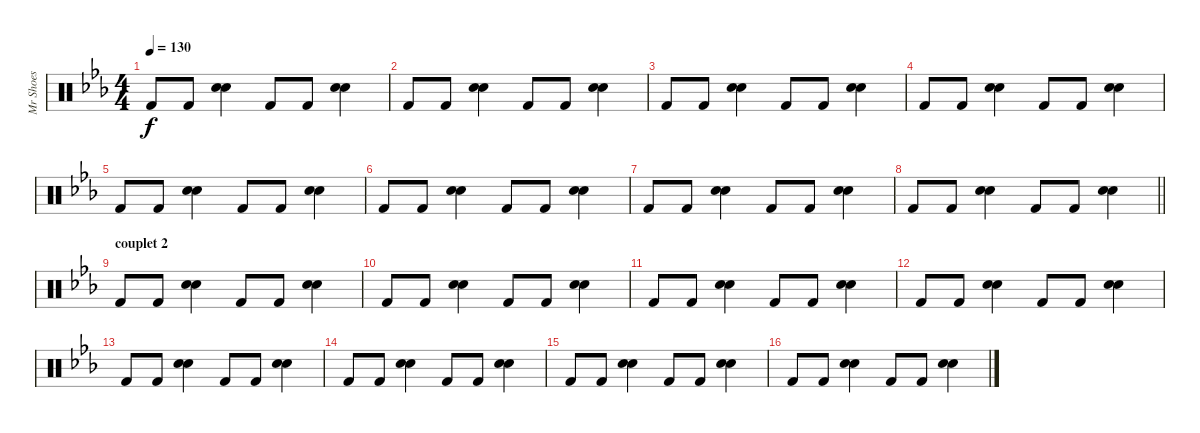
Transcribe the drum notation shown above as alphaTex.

\track ("Mr Shoes " "Mr Shoes ") {instrument percussion}
\staff {score}
\articulation defaults
\ts (4 4)
\tempo 130
\clef neutral
\ks eb "Kick (hit) 2".8{dy f} "Kick (hit) 2".8
("Electric Snare (hit)" "Snare (hit) 2").4 "Kick (hit) 2".8 "Kick (hit) 2".8 ("Electric Snare (hit)" "Snare (hit) 2").4 |
"Kick (hit) 2".8 "Kick (hit) 2".8 ("Electric Snare (hit)" "Snare (hit) 2").4 "Kick (hit) 2".8 "Kick (hit) 2".8 ("Electric Snare (hit)" "Snare (hit) 2").4 |
"Kick (hit) 2".8 "Kick (hit) 2".8 ("Electric Snare (hit)" "Snare (hit) 2").4 "Kick (hit) 2".8 "Kick (hit) 2".8 ("Electric Snare (hit)" "Snare (hit) 2").4 |
"Kick (hit) 2".8 "Kick (hit) 2".8 ("Electric Snare (hit)" "Snare (hit) 2").4 "Kick (hit) 2".8 "Kick (hit) 2".8 ("Electric Snare (hit)" "Snare (hit) 2").4 |
"Kick (hit) 2".8 "Kick (hit) 2".8 ("Electric Snare (hit)" "Snare (hit) 2").4 "Kick (hit) 2".8 "Kick (hit) 2".8 ("Electric Snare (hit)" "Snare (hit) 2").4 |
"Kick (hit) 2".8 "Kick (hit) 2".8 ("Electric Snare (hit)" "Snare (hit) 2").4 "Kick (hit) 2".8 "Kick (hit) 2".8 ("Electric Snare (hit)" "Snare (hit) 2").4 |
"Kick (hit) 2".8 "Kick (hit) 2".8 ("Electric Snare (hit)" "Snare (hit) 2").4 "Kick (hit) 2".8 "Kick (hit) 2".8 ("Electric Snare (hit)" "Snare (hit) 2").4 |
\barLineRight lightlight "Kick (hit) 2".8 "Kick (hit) 2".8
("Electric Snare (hit)" "Snare (hit) 2").4 "Kick (hit) 2".8 "Kick (hit) 2".8 ("Electric Snare (hit)" "Snare (hit) 2").4 |
\section ("" "couplet 2")
"Kick (hit) 2".8 "Kick (hit) 2".8 ("Electric Snare (hit)" "Snare (hit) 2").4 "Kick (hit) 2".8 "Kick (hit) 2".8 ("Electric Snare (hit)" "Snare (hit) 2").4 |
"Kick (hit) 2".8 "Kick (hit) 2".8 ("Electric Snare (hit)" "Snare (hit) 2").4 "Kick (hit) 2".8 "Kick (hit) 2".8 ("Electric Snare (hit)" "Snare (hit) 2").4 |
"Kick (hit) 2".8 "Kick (hit) 2".8 ("Electric Snare (hit)" "Snare (hit) 2").4 "Kick (hit) 2".8 "Kick (hit) 2".8 ("Electric Snare (hit)" "Snare (hit) 2").4 |
"Kick (hit) 2".8 "Kick (hit) 2".8 ("Electric Snare (hit)" "Snare (hit) 2").4 "Kick (hit) 2".8 "Kick (hit) 2".8 ("Electric Snare (hit)" "Snare (hit) 2").4 |
"Kick (hit) 2".8 "Kick (hit) 2".8 ("Electric Snare (hit)" "Snare (hit) 2").4 "Kick (hit) 2".8 "Kick (hit) 2".8 ("Electric Snare (hit)" "Snare (hit) 2").4 |
"Kick (hit) 2".8 "Kick (hit) 2".8 ("Electric Snare (hit)" "Snare (hit) 2").4 "Kick (hit) 2".8 "Kick (hit) 2".8 ("Electric Snare (hit)" "Snare (hit) 2").4 |
"Kick (hit) 2".8 "Kick (hit) 2".8 ("Electric Snare (hit)" "Snare (hit) 2").4 "Kick (hit) 2".8 "Kick (hit) 2".8 ("Electric Snare (hit)" "Snare (hit) 2").4 |
"Kick (hit) 2".8 "Kick (hit) 2".8 ("Electric Snare (hit)" "Snare (hit) 2").4 "Kick (hit) 2".8 "Kick (hit) 2".8 ("Electric Snare (hit)" "Snare (hit) 2").4
